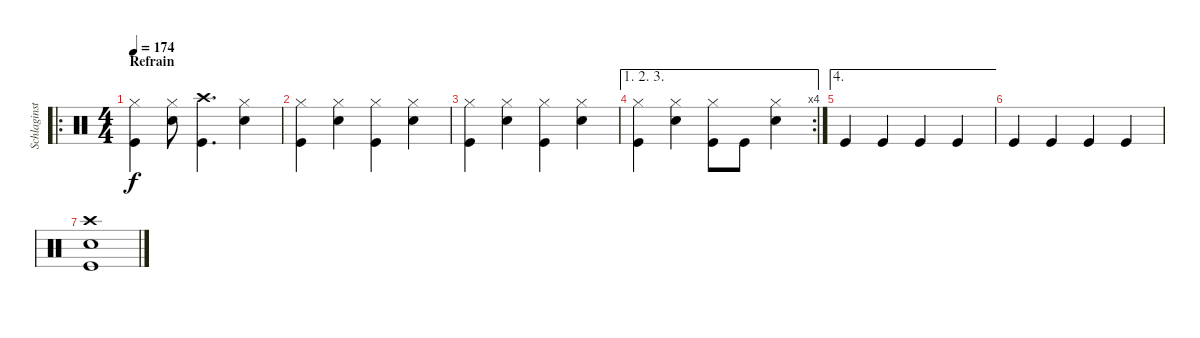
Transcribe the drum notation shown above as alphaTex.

\track ("Schlaginstrumente - Auswahl" "Schlaginst") {instrument percussion}
\staff {score}
\articulation defaults
\ro
\ts (4 4)
\section ("" "Refrain")
\tempo 174
\clef neutral
\ks c
("Kick (hit)" "Hi-Hat (closed)").4{dy f} ("Snare (hit) 2" "Hi-Hat (closed)").8 ("Kick (hit)" "Crash high (hit)").4{d} ("Snare (hit) 2" "Hi-Hat (closed)").4 |
("Kick (hit)" "Hi-Hat (closed)").4 ("Snare (hit) 2" "Hi-Hat (closed)").4 ("Kick (hit)" "Hi-Hat (closed)").4 ("Snare (hit) 2" "Hi-Hat (closed)").4 |
("Kick (hit)" "Hi-Hat (closed)").4 ("Snare (hit) 2" "Hi-Hat (closed)").4 ("Kick (hit)" "Hi-Hat (closed)").4 ("Snare (hit) 2" "Hi-Hat (closed)").4 |
\ae (1 2 3)
\rc 4
("Kick (hit)" "Hi-Hat (closed)").4 ("Snare (hit) 2" "Hi-Hat (closed)").4 ("Kick (hit)" "Hi-Hat (closed)").8 "Kick (hit)".8 ("Snare (hit) 2" "Hi-Hat (closed)").4 |
\ae 4 "Kick (hit)".4 "Kick (hit)".4 "Kick (hit)".4 "Kick (hit)".4
|
"Kick (hit)".4 "Kick (hit)".4 "Kick (hit)".4 "Kick (hit)".4 |
("Snare (hit) 2" "Kick (hit)" "Crash high (hit)").1
